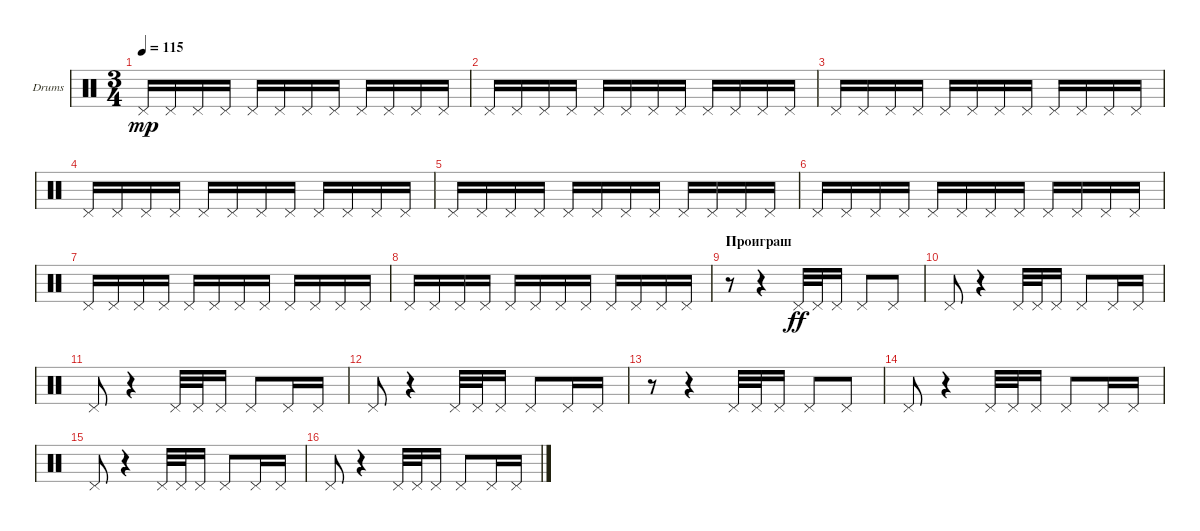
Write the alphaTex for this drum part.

\defaultSystemsLayout 4
\bracketExtendMode groupsimilarinstruments
\firstSystemTrackNameOrientation horizontal
\otherSystemsTrackNameOrientation horizontal
\track ("Е. Кулаков" "Drums") {instrument percussion}
\staff {score}
\articulation defaults
\ts (3 4)
\tempo 115
\clef neutral
\ks c "Pedal Hi-Hat (hit)".16{dy mp} "Pedal Hi-Hat (hit)".16 "Pedal Hi-Hat (hit)".16 "Pedal Hi-Hat (hit)".16 "Pedal Hi-Hat (hit)".16 "Pedal Hi-Hat (hit)".16 "Pedal Hi-Hat (hit)".16 "Pedal Hi-Hat (hit)".16 "Pedal Hi-Hat (hit)".16 "Pedal Hi-Hat (hit)".16 "Pedal Hi-Hat (hit)".16 "Pedal Hi-Hat (hit)".16
|
"Pedal Hi-Hat (hit)".16 "Pedal Hi-Hat (hit)".16 "Pedal Hi-Hat (hit)".16 "Pedal Hi-Hat (hit)".16 "Pedal Hi-Hat (hit)".16 "Pedal Hi-Hat (hit)".16 "Pedal Hi-Hat (hit)".16 "Pedal Hi-Hat (hit)".16 "Pedal Hi-Hat (hit)".16 "Pedal Hi-Hat (hit)".16 "Pedal Hi-Hat (hit)".16 "Pedal Hi-Hat (hit)".16 |
"Pedal Hi-Hat (hit)".16 "Pedal Hi-Hat (hit)".16 "Pedal Hi-Hat (hit)".16 "Pedal Hi-Hat (hit)".16 "Pedal Hi-Hat (hit)".16 "Pedal Hi-Hat (hit)".16 "Pedal Hi-Hat (hit)".16 "Pedal Hi-Hat (hit)".16 "Pedal Hi-Hat (hit)".16 "Pedal Hi-Hat (hit)".16 "Pedal Hi-Hat (hit)".16 "Pedal Hi-Hat (hit)".16 |
"Pedal Hi-Hat (hit)".16 "Pedal Hi-Hat (hit)".16 "Pedal Hi-Hat (hit)".16 "Pedal Hi-Hat (hit)".16 "Pedal Hi-Hat (hit)".16 "Pedal Hi-Hat (hit)".16 "Pedal Hi-Hat (hit)".16 "Pedal Hi-Hat (hit)".16 "Pedal Hi-Hat (hit)".16 "Pedal Hi-Hat (hit)".16 "Pedal Hi-Hat (hit)".16 "Pedal Hi-Hat (hit)".16 |
"Pedal Hi-Hat (hit)".16 "Pedal Hi-Hat (hit)".16 "Pedal Hi-Hat (hit)".16 "Pedal Hi-Hat (hit)".16 "Pedal Hi-Hat (hit)".16 "Pedal Hi-Hat (hit)".16 "Pedal Hi-Hat (hit)".16 "Pedal Hi-Hat (hit)".16 "Pedal Hi-Hat (hit)".16 "Pedal Hi-Hat (hit)".16 "Pedal Hi-Hat (hit)".16 "Pedal Hi-Hat (hit)".16 |
"Pedal Hi-Hat (hit)".16 "Pedal Hi-Hat (hit)".16 "Pedal Hi-Hat (hit)".16 "Pedal Hi-Hat (hit)".16 "Pedal Hi-Hat (hit)".16 "Pedal Hi-Hat (hit)".16 "Pedal Hi-Hat (hit)".16 "Pedal Hi-Hat (hit)".16 "Pedal Hi-Hat (hit)".16 "Pedal Hi-Hat (hit)".16 "Pedal Hi-Hat (hit)".16 "Pedal Hi-Hat (hit)".16 |
"Pedal Hi-Hat (hit)".16 "Pedal Hi-Hat (hit)".16 "Pedal Hi-Hat (hit)".16 "Pedal Hi-Hat (hit)".16 "Pedal Hi-Hat (hit)".16 "Pedal Hi-Hat (hit)".16 "Pedal Hi-Hat (hit)".16 "Pedal Hi-Hat (hit)".16 "Pedal Hi-Hat (hit)".16 "Pedal Hi-Hat (hit)".16 "Pedal Hi-Hat (hit)".16 "Pedal Hi-Hat (hit)".16 |
"Pedal Hi-Hat (hit)".16 "Pedal Hi-Hat (hit)".16 "Pedal Hi-Hat (hit)".16 "Pedal Hi-Hat (hit)".16 "Pedal Hi-Hat (hit)".16 "Pedal Hi-Hat (hit)".16 "Pedal Hi-Hat (hit)".16 "Pedal Hi-Hat (hit)".16 "Pedal Hi-Hat (hit)".16 "Pedal Hi-Hat (hit)".16 "Pedal Hi-Hat (hit)".16 "Pedal Hi-Hat (hit)".16 |
\section ("" "Проиграш")
r.8 r.4 "Pedal Hi-Hat (hit)".32{dy ff} "Pedal Hi-Hat (hit)".32 "Pedal Hi-Hat (hit)".16 "Pedal Hi-Hat (hit)".8 "Pedal Hi-Hat (hit)".8 |
"Pedal Hi-Hat (hit)".8 r.4 "Pedal Hi-Hat (hit)".32 "Pedal Hi-Hat (hit)".32 "Pedal Hi-Hat (hit)".16 "Pedal Hi-Hat (hit)".8 "Pedal Hi-Hat (hit)".16 "Pedal Hi-Hat (hit)".16 |
"Pedal Hi-Hat (hit)".8 r.4 "Pedal Hi-Hat (hit)".32 "Pedal Hi-Hat (hit)".32 "Pedal Hi-Hat (hit)".16 "Pedal Hi-Hat (hit)".8 "Pedal Hi-Hat (hit)".16 "Pedal Hi-Hat (hit)".16 |
"Pedal Hi-Hat (hit)".8 r.4 "Pedal Hi-Hat (hit)".32 "Pedal Hi-Hat (hit)".32 "Pedal Hi-Hat (hit)".16 "Pedal Hi-Hat (hit)".8 "Pedal Hi-Hat (hit)".16 "Pedal Hi-Hat (hit)".16 |
r.8 r.4 "Pedal Hi-Hat (hit)".32 "Pedal Hi-Hat (hit)".32 "Pedal Hi-Hat (hit)".16 "Pedal Hi-Hat (hit)".8 "Pedal Hi-Hat (hit)".8 |
"Pedal Hi-Hat (hit)".8 r.4 "Pedal Hi-Hat (hit)".32 "Pedal Hi-Hat (hit)".32 "Pedal Hi-Hat (hit)".16 "Pedal Hi-Hat (hit)".8 "Pedal Hi-Hat (hit)".16 "Pedal Hi-Hat (hit)".16 |
"Pedal Hi-Hat (hit)".8 r.4 "Pedal Hi-Hat (hit)".32 "Pedal Hi-Hat (hit)".32 "Pedal Hi-Hat (hit)".16 "Pedal Hi-Hat (hit)".8 "Pedal Hi-Hat (hit)".16 "Pedal Hi-Hat (hit)".16 |
"Pedal Hi-Hat (hit)".8 r.4 "Pedal Hi-Hat (hit)".32 "Pedal Hi-Hat (hit)".32 "Pedal Hi-Hat (hit)".16 "Pedal Hi-Hat (hit)".8 "Pedal Hi-Hat (hit)".16 "Pedal Hi-Hat (hit)".16
